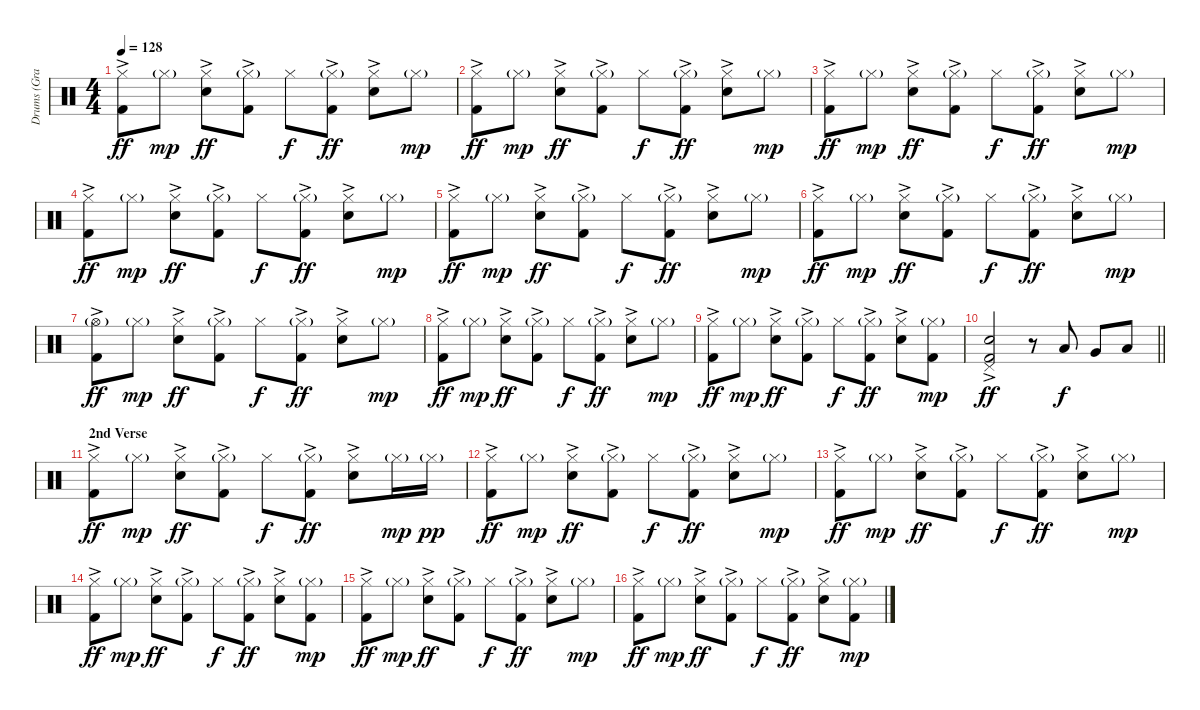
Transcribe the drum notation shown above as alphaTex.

\track ("Drums (Graham)" "Drums (Gra") {instrument percussion}
\staff {score}
\articulation defaults
\ts (4 4)
\tempo 128
\clef neutral
\ks c
("Hi-Hat (closed)" "Kick (hit) 2"{ac}).8{dy ff} "Hi-Hat (closed)"{g}.8{dy mp} ("Hi-Hat (closed)" "Snare (hit) 2"{ac}).8{dy ff} ("Hi-Hat (closed)"{g} "Kick (hit) 2"{ac}).8 "Hi-Hat (closed)".8{dy f} ("Hi-Hat (closed)"{g} "Kick (hit) 2"{ac}).8{dy ff} ("Hi-Hat (closed)" "Snare (hit) 2"{ac}).8 "Hi-Hat (closed)"{g}.8{dy mp} |
("Hi-Hat (closed)" "Kick (hit) 2"{ac}).8{dy ff} "Hi-Hat (closed)"{g}.8{dy mp} ("Hi-Hat (closed)" "Snare (hit) 2"{ac}).8{dy ff} ("Hi-Hat (closed)"{g} "Kick (hit) 2"{ac}).8 "Hi-Hat (closed)".8{dy f} ("Hi-Hat (closed)"{g} "Kick (hit) 2"{ac}).8{dy ff} ("Hi-Hat (closed)" "Snare (hit) 2"{ac}).8 "Hi-Hat (closed)"{g}.8{dy mp} |
("Hi-Hat (closed)" "Kick (hit) 2"{ac}).8{dy ff} "Hi-Hat (closed)"{g}.8{dy mp} ("Hi-Hat (closed)" "Snare (hit) 2"{ac}).8{dy ff} ("Hi-Hat (closed)"{g} "Kick (hit) 2"{ac}).8 "Hi-Hat (closed)".8{dy f} ("Hi-Hat (closed)"{g} "Kick (hit) 2"{ac}).8{dy ff} ("Hi-Hat (closed)" "Snare (hit) 2"{ac}).8 "Hi-Hat (closed)"{g}.8{dy mp} |
("Hi-Hat (closed)" "Kick (hit) 2"{ac}).8{dy ff} "Hi-Hat (closed)"{g}.8{dy mp} ("Hi-Hat (closed)" "Snare (hit) 2"{ac}).8{dy ff} ("Hi-Hat (closed)"{g} "Kick (hit) 2"{ac}).8 "Hi-Hat (closed)".8{dy f} ("Hi-Hat (closed)"{g} "Kick (hit) 2"{ac}).8{dy ff} ("Hi-Hat (closed)" "Snare (hit) 2"{ac}).8 "Hi-Hat (closed)"{g}.8{dy mp} |
("Hi-Hat (closed)" "Kick (hit) 2"{ac}).8{dy ff} "Hi-Hat (closed)"{g}.8{dy mp} ("Hi-Hat (closed)" "Snare (hit) 2"{ac}).8{dy ff} ("Hi-Hat (closed)"{g} "Kick (hit) 2"{ac}).8 "Hi-Hat (closed)".8{dy f} ("Hi-Hat (closed)"{g} "Kick (hit) 2"{ac}).8{dy ff} ("Hi-Hat (closed)" "Snare (hit) 2"{ac}).8 "Hi-Hat (closed)"{g}.8{dy mp} |
("Hi-Hat (closed)" "Kick (hit) 2"{ac}).8{dy ff} "Hi-Hat (closed)"{g}.8{dy mp} ("Hi-Hat (closed)" "Snare (hit) 2"{ac}).8{dy ff} ("Hi-Hat (closed)"{g} "Kick (hit) 2"{ac}).8 "Hi-Hat (closed)".8{dy f} ("Hi-Hat (closed)"{g} "Kick (hit) 2"{ac}).8{dy ff} ("Hi-Hat (closed)" "Snare (hit) 2"{ac}).8 "Hi-Hat (closed)"{g}.8{dy mp} |
("Hi-Hat (open)"{g} "Kick (hit) 2"{ac}).8{dy ff} "Hi-Hat (closed)"{g}.8{dy mp} ("Hi-Hat (closed)" "Snare (hit) 2"{ac}).8{dy ff} ("Hi-Hat (closed)"{g} "Kick (hit) 2"{ac}).8 "Hi-Hat (closed)".8{dy f} ("Hi-Hat (closed)"{g} "Kick (hit) 2"{ac}).8{dy ff} ("Hi-Hat (closed)" "Snare (hit) 2"{ac}).8 "Hi-Hat (closed)"{g}.8{dy mp} |
("Hi-Hat (closed)" "Kick (hit) 2"{ac}).8{dy ff} "Hi-Hat (closed)"{g}.8{dy mp} ("Hi-Hat (closed)" "Snare (hit) 2"{ac}).8{dy ff} ("Hi-Hat (closed)"{g} "Kick (hit) 2"{ac}).8 "Hi-Hat (closed)".8{dy f} ("Hi-Hat (closed)"{g} "Kick (hit) 2"{ac}).8{dy ff} ("Hi-Hat (closed)" "Snare (hit) 2"{ac}).8 "Hi-Hat (closed)"{g}.8{dy mp} |
("Hi-Hat (closed)" "Kick (hit) 2"{ac}).8{dy ff} "Hi-Hat (closed)"{g}.8{dy mp} ("Hi-Hat (closed)" "Snare (hit) 2"{ac}).8{dy ff} ("Hi-Hat (closed)"{g} "Kick (hit) 2"{ac}).8 "Hi-Hat (closed)".8{dy f} ("Hi-Hat (closed)"{g} "Kick (hit) 2"{ac}).8{dy ff} ("Hi-Hat (closed)" "Snare (hit) 2"{ac}).8 ("Hi-Hat (closed)"{g} "Kick (hit) 2").8{dy mp} |
\barLineRight lightlight
("Pedal Hi-Hat (hit)" "Snare (hit) 2" "Kick (hit) 2"{ac}).2{dy ff} r.8 "Low Tom (hit)".8{dy f} "Very Low Tom (hit)".8 "Low Floor Tom (hit)".8 |
\section ("" "2nd Verse")
("Hi-Hat (closed)" "Kick (hit) 2"{ac}).8{dy ff} "Hi-Hat (closed)"{g}.8{dy mp} ("Hi-Hat (closed)" "Snare (hit) 2"{ac}).8{dy ff} ("Hi-Hat (closed)"{g} "Kick (hit) 2"{ac}).8 "Hi-Hat (closed)".8{dy f} ("Hi-Hat (closed)"{g} "Kick (hit) 2"{ac}).8{dy ff} ("Hi-Hat (closed)" "Snare (hit) 2"{ac}).8 "Hi-Hat (closed)"{g}.16{dy mp} "Hi-Hat (closed)"{g}.16{dy pp} |
("Hi-Hat (closed)" "Kick (hit) 2"{ac}).8{dy ff} "Hi-Hat (closed)"{g}.8{dy mp} ("Hi-Hat (closed)" "Snare (hit) 2"{ac}).8{dy ff} ("Hi-Hat (closed)"{g} "Kick (hit) 2"{ac}).8 "Hi-Hat (closed)".8{dy f} ("Hi-Hat (closed)"{g} "Kick (hit) 2"{ac}).8{dy ff} ("Hi-Hat (closed)" "Snare (hit) 2"{ac}).8 "Hi-Hat (closed)"{g}.8{dy mp} |
("Hi-Hat (closed)" "Kick (hit) 2"{ac}).8{dy ff} "Hi-Hat (closed)"{g}.8{dy mp} ("Hi-Hat (closed)" "Snare (hit) 2"{ac}).8{dy ff} ("Hi-Hat (closed)"{g} "Kick (hit) 2"{ac}).8 "Hi-Hat (closed)".8{dy f} ("Hi-Hat (closed)"{g} "Kick (hit) 2"{ac}).8{dy ff} ("Hi-Hat (closed)" "Snare (hit) 2"{ac}).8 "Hi-Hat (closed)"{g}.8{dy mp} |
("Hi-Hat (closed)" "Kick (hit) 2"{ac}).8{dy ff} "Hi-Hat (closed)"{g}.8{dy mp} ("Hi-Hat (closed)" "Snare (hit) 2"{ac}).8{dy ff} ("Hi-Hat (closed)"{g} "Kick (hit) 2"{ac}).8 "Hi-Hat (closed)".8{dy f} ("Hi-Hat (closed)"{g} "Kick (hit) 2"{ac}).8{dy ff} ("Hi-Hat (closed)" "Snare (hit) 2"{ac}).8 ("Hi-Hat (closed)"{g} "Kick (hit) 2").8{dy mp} |
("Hi-Hat (closed)" "Kick (hit) 2"{ac}).8{dy ff} "Hi-Hat (closed)"{g}.8{dy mp} ("Hi-Hat (closed)" "Snare (hit) 2"{ac}).8{dy ff} ("Hi-Hat (closed)"{g} "Kick (hit) 2"{ac}).8 "Hi-Hat (closed)".8{dy f} ("Hi-Hat (closed)"{g} "Kick (hit) 2"{ac}).8{dy ff} ("Hi-Hat (closed)" "Snare (hit) 2"{ac}).8 "Hi-Hat (closed)"{g}.8{dy mp} |
("Hi-Hat (closed)" "Kick (hit) 2"{ac}).8{dy ff} "Hi-Hat (closed)"{g}.8{dy mp} ("Hi-Hat (closed)" "Snare (hit) 2"{ac}).8{dy ff} ("Hi-Hat (closed)"{g} "Kick (hit) 2"{ac}).8 "Hi-Hat (closed)".8{dy f} ("Hi-Hat (closed)"{g} "Kick (hit) 2"{ac}).8{dy ff} ("Hi-Hat (closed)" "Snare (hit) 2"{ac}).8 ("Hi-Hat (closed)"{g} "Kick (hit) 2").8{dy mp}
